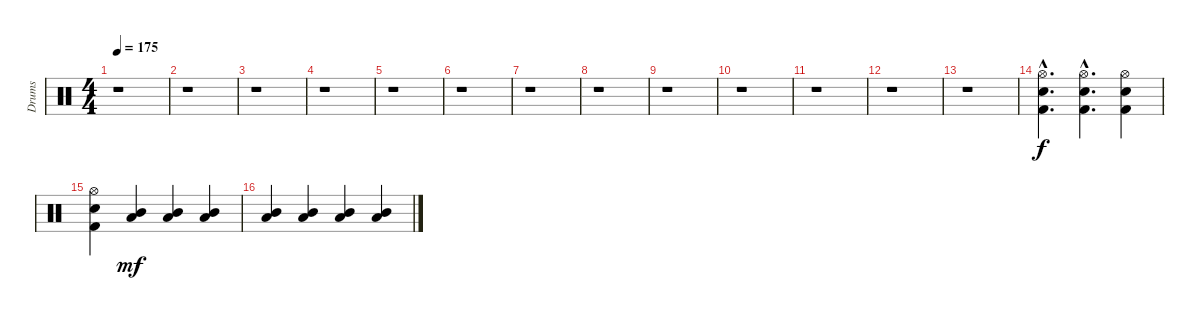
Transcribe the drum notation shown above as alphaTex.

\track ("Drums" "Drums") {instrument percussion}
\staff {score}
\articulation defaults
\ts (4 4)
\tempo 175
\clef neutral
\ks c
r.1{dy f} |
r.1 |
r.1 |
r.1 |
r.1 |
r.1 |
r.1 |
r.1 |
r.1 |
r.1 |
r.1 |
r.1 |
r.1 |
("Hi-Hat (open)"{hac} "Snare (hit) 2"{hac} "Kick (hit) 2"{hac}).4{d} ("Hi-Hat (open)"{hac} "Snare (hit) 2"{hac} "Kick (hit) 2"{hac}).4{d} ("Hi-Hat (open)" "Snare (hit) 2" "Kick (hit) 2").4 |
("Hi-Hat (open)" "Snare (hit) 2" "Kick (hit) 2").4 ("Mid Tom (hit)" "Low Tom (hit)").4{dy mf} ("Mid Tom (hit)" "Low Tom (hit)").4 ("Mid Tom (hit)" "Low Tom (hit)").4 |
("Mid Tom (hit)" "Low Tom (hit)").4 ("Mid Tom (hit)" "Low Tom (hit)").4 ("Mid Tom (hit)" "Low Tom (hit)").4 ("Mid Tom (hit)" "Low Tom (hit)").4
